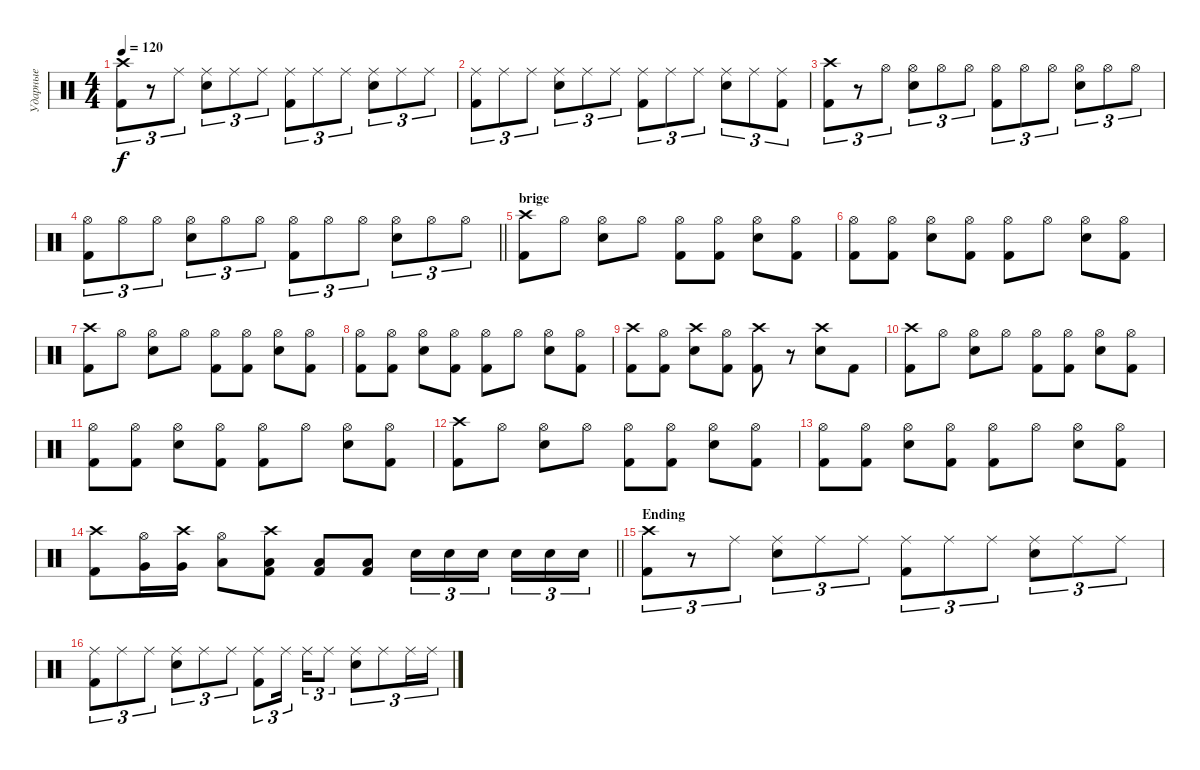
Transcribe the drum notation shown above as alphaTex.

\track ("Ударные" "Ударные") {instrument percussion}
\staff {score}
\articulation defaults
\ts (4 4)
\tempo 120
\clef neutral
\ks c
("Crash high (hit)" "Kick (hit) 2").8{tu (3 2) dy f} r.8{tu (3 2)} "Ride (middle)".8{tu (3 2)} ("Ride (middle)" "Snare (hit) 2").8{tu (3 2)} "Ride (middle)".8{tu (3 2)} "Ride (middle)".8{tu (3 2)} ("Ride (middle)" "Kick (hit) 2").8{tu (3 2)} "Ride (middle)".8{tu (3 2)} "Ride (middle)".8{tu (3 2)} ("Ride (middle)" "Snare (hit) 2").8{tu (3 2)} "Ride (middle)".8{tu (3 2)} "Ride (middle)".8{tu (3 2)} |
("Ride (middle)" "Kick (hit) 2").8{tu (3 2)} "Ride (middle)".8{tu (3 2)} "Ride (middle)".8{tu (3 2)} ("Ride (middle)" "Snare (hit) 2").8{tu (3 2)} "Ride (middle)".8{tu (3 2)} "Ride (middle)".8{tu (3 2)} ("Ride (middle)" "Kick (hit) 2").8{tu (3 2)} "Ride (middle)".8{tu (3 2)} "Ride (middle)".8{tu (3 2)} ("Ride (middle)" "Snare (hit) 2").8{tu (3 2)} "Ride (middle)".8{tu (3 2)} ("Ride (middle)" "Kick (hit) 2").8{tu (3 2)} |
("Crash high (hit)" "Kick (hit) 2").8{tu (3 2)} r.8{tu (3 2)} "Hi-Hat (open)".8{tu (3 2)} ("Hi-Hat (open)" "Snare (hit) 2").8{tu (3 2)} "Hi-Hat (open)".8{tu (3 2)} "Hi-Hat (open)".8{tu (3 2)} ("Hi-Hat (open)" "Kick (hit) 2").8{tu (3 2)} "Hi-Hat (open)".8{tu (3 2)} "Hi-Hat (open)".8{tu (3 2)} ("Hi-Hat (open)" "Snare (hit) 2").8{tu (3 2)} "Hi-Hat (open)".8{tu (3 2)} "Hi-Hat (open)".8{tu (3 2)} |
\barLineRight lightlight
("Hi-Hat (open)" "Kick (hit) 2").8{tu (3 2)} "Hi-Hat (open)".8{tu (3 2)} "Hi-Hat (open)".8{tu (3 2)} ("Hi-Hat (open)" "Snare (hit) 2").8{tu (3 2)} "Hi-Hat (open)".8{tu (3 2)} "Hi-Hat (open)".8{tu (3 2)} ("Hi-Hat (open)" "Kick (hit) 2").8{tu (3 2)} "Hi-Hat (open)".8{tu (3 2)} "Hi-Hat (open)".8{tu (3 2)} ("Hi-Hat (open)" "Snare (hit) 2").8{tu (3 2)} "Hi-Hat (open)".8{tu (3 2)} "Hi-Hat (open)".8{tu (3 2)} |
\section ("" "brige")
("Crash high (hit)" "Kick (hit) 2").8 "Hi-Hat (open)".8 ("Hi-Hat (open)" "Snare (hit) 2").8 "Hi-Hat (open)".8 ("Hi-Hat (open)" "Kick (hit) 2").8 ("Hi-Hat (open)" "Kick (hit) 2").8 ("Hi-Hat (open)" "Snare (hit) 2").8 ("Hi-Hat (open)" "Kick (hit) 2").8 |
("Hi-Hat (open)" "Kick (hit) 2").8 ("Hi-Hat (open)" "Kick (hit) 2").8 ("Hi-Hat (open)" "Snare (hit) 2").8 ("Hi-Hat (open)" "Kick (hit) 2").8 ("Hi-Hat (open)" "Kick (hit) 2").8 "Hi-Hat (open)".8 ("Hi-Hat (open)" "Snare (hit) 2").8 ("Hi-Hat (open)" "Kick (hit) 2").8 |
("Crash high (hit)" "Kick (hit) 2").8 "Hi-Hat (open)".8 ("Hi-Hat (open)" "Snare (hit) 2").8 "Hi-Hat (open)".8 ("Hi-Hat (open)" "Kick (hit) 2").8 ("Hi-Hat (open)" "Kick (hit) 2").8 ("Hi-Hat (open)" "Snare (hit) 2").8 ("Hi-Hat (open)" "Kick (hit) 2").8 |
("Hi-Hat (open)" "Kick (hit) 2").8 ("Hi-Hat (open)" "Kick (hit) 2").8 ("Hi-Hat (open)" "Snare (hit) 2").8 ("Hi-Hat (open)" "Kick (hit) 2").8 ("Hi-Hat (open)" "Kick (hit) 2").8 "Hi-Hat (open)".8 ("Hi-Hat (open)" "Snare (hit) 2").8 ("Hi-Hat (open)" "Kick (hit) 2").8 |
("Crash high (hit)" "Kick (hit) 2").8 ("Hi-Hat (open)" "Kick (hit) 2").8 ("Crash high (hit)" "Snare (hit) 2").8 ("Hi-Hat (open)" "Kick (hit) 2").8 ("Crash high (hit)" "Kick (hit) 2").8 r.8 ("Crash high (hit)" "Snare (hit) 2").8 "Kick (hit) 2".8 |
("Crash high (hit)" "Kick (hit) 2").8 "Hi-Hat (open)".8 ("Hi-Hat (open)" "Snare (hit) 2").8 "Hi-Hat (open)".8 ("Hi-Hat (open)" "Kick (hit) 2").8 ("Hi-Hat (open)" "Kick (hit) 2").8 ("Hi-Hat (open)" "Snare (hit) 2").8 ("Hi-Hat (open)" "Kick (hit) 2").8 |
("Hi-Hat (open)" "Kick (hit) 2").8 ("Hi-Hat (open)" "Kick (hit) 2").8 ("Hi-Hat (open)" "Snare (hit) 2").8 ("Hi-Hat (open)" "Kick (hit) 2").8 ("Hi-Hat (open)" "Kick (hit) 2").8 "Hi-Hat (open)".8 ("Hi-Hat (open)" "Snare (hit) 2").8 ("Hi-Hat (open)" "Kick (hit) 2").8 |
("Crash high (hit)" "Kick (hit) 2").8 "Hi-Hat (open)".8 ("Hi-Hat (open)" "Snare (hit) 2").8 "Hi-Hat (open)".8 ("Hi-Hat (open)" "Kick (hit) 2").8 ("Hi-Hat (open)" "Kick (hit) 2").8 ("Hi-Hat (open)" "Snare (hit) 2").8 ("Hi-Hat (open)" "Kick (hit) 2").8 |
("Hi-Hat (open)" "Kick (hit) 2").8 ("Hi-Hat (open)" "Kick (hit) 2").8 ("Hi-Hat (open)" "Snare (hit) 2").8 ("Hi-Hat (open)" "Kick (hit) 2").8 ("Hi-Hat (open)" "Kick (hit) 2").8 "Hi-Hat (open)".8 ("Hi-Hat (open)" "Snare (hit) 2").8 ("Hi-Hat (open)" "Kick (hit) 2").8 |
\barLineRight lightlight
("Crash high (hit)" "Kick (hit) 2").8 ("Hi-Hat (open)" "Very Low Tom (hit)").16 ("Crash high (hit)" "Very Low Tom (hit)").16 ("Hi-Hat (open)" "Low Floor Tom (hit)").8 ("Crash high (hit)" "Low Floor Tom (hit)" "Kick (hit) 2").8 ("Low Tom (hit)" "Kick (hit) 2").8 ("Low Tom (hit)" "Kick (hit) 2").8 "Snare (hit) 2".16{tu (3 2)} "Snare (hit) 2".16{tu (3 2)} "Snare (hit) 2".16{tu (3 2) beam splitsecondary} "Snare (hit) 2".16{tu (3 2)} "Snare (hit) 2".16{tu (3 2)} "Snare (hit) 2".16{tu (3 2)} |
\section ("" "Ending")
("Crash high (hit)" "Kick (hit) 2").8{tu (3 2)} r.8{tu (3 2)} "Ride (middle)".8{tu (3 2)} ("Ride (middle)" "Snare (hit) 2").8{tu (3 2)} "Ride (middle)".8{tu (3 2)} "Ride (middle)".8{tu (3 2)} ("Ride (middle)" "Kick (hit) 2").8{tu (3 2)} "Ride (middle)".8{tu (3 2)} "Ride (middle)".8{tu (3 2)} ("Ride (middle)" "Snare (hit) 2").8{tu (3 2)} "Ride (middle)".8{tu (3 2)} "Ride (middle)".8{tu (3 2)} |
("Ride (middle)" "Kick (hit) 2").8{tu (3 2)} "Ride (middle)".8{tu (3 2)} "Ride (middle)".8{tu (3 2)} ("Ride (middle)" "Snare (hit) 2").8{tu (3 2)} "Ride (middle)".8{tu (3 2)} "Ride (middle)".8{tu (3 2)} ("Ride (middle)" "Kick (hit) 2").8{tu (3 2)} "Ride (middle)".16{tu (3 2) beam splitsecondary} "Ride (middle)".16{tu (3 2)} "Ride (middle)".8{tu (3 2)} ("Ride (middle)" "Snare (hit) 2").8{tu (3 2)} "Ride (middle)".8{tu (3 2)} "Ride (middle)".16{tu (3 2)} "Ride (middle)".16{tu (3 2)}
